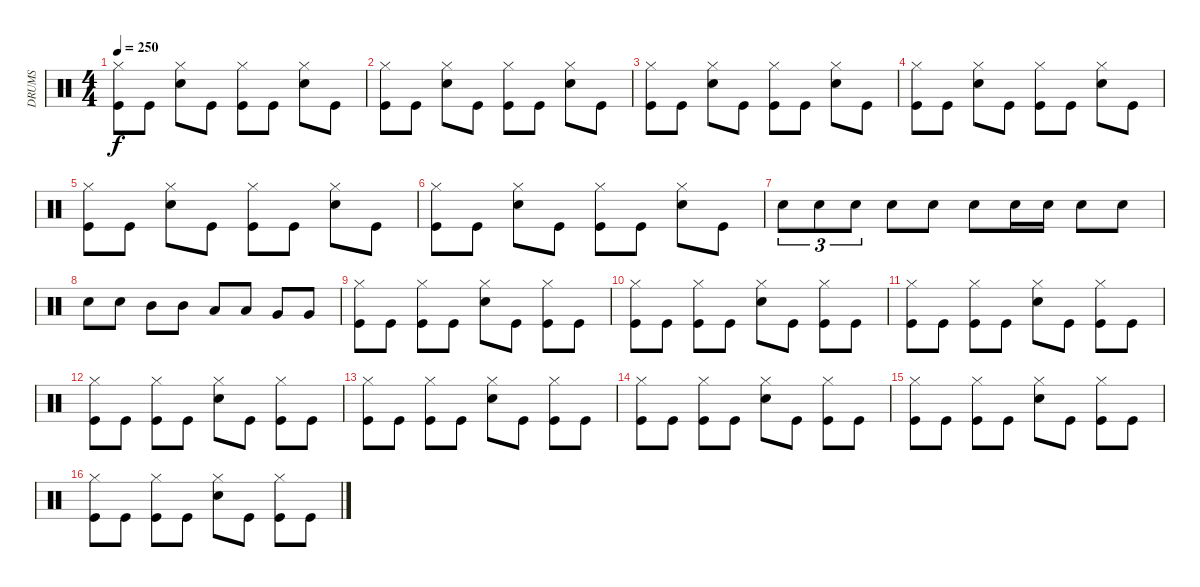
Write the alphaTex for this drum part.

\track ("DRUMS" "DRUMS") {instrument percussion}
\staff {score}
\articulation defaults
\ts (4 4)
\tempo 250
\clef neutral
\ks aminor
("Hi-Hat (closed)" "Kick (hit)").8{dy f} "Kick (hit)".8 ("Hi-Hat (closed)" "Snare (hit) 2").8 "Kick (hit)".8 ("Hi-Hat (closed)" "Kick (hit)").8 "Kick (hit)".8 ("Hi-Hat (closed)" "Snare (hit) 2").8 "Kick (hit)".8 |
("Hi-Hat (closed)" "Kick (hit)").8 "Kick (hit)".8 ("Hi-Hat (closed)" "Snare (hit) 2").8 "Kick (hit)".8 ("Hi-Hat (closed)" "Kick (hit)").8 "Kick (hit)".8 ("Hi-Hat (closed)" "Snare (hit) 2").8 "Kick (hit)".8 |
("Hi-Hat (closed)" "Kick (hit)").8 "Kick (hit)".8 ("Hi-Hat (closed)" "Snare (hit) 2").8 "Kick (hit)".8 ("Hi-Hat (closed)" "Kick (hit)").8 "Kick (hit)".8 ("Hi-Hat (closed)" "Snare (hit) 2").8 "Kick (hit)".8 |
("Hi-Hat (closed)" "Kick (hit)").8 "Kick (hit)".8 ("Hi-Hat (closed)" "Snare (hit) 2").8 "Kick (hit)".8 ("Hi-Hat (closed)" "Kick (hit)").8 "Kick (hit)".8 ("Hi-Hat (closed)" "Snare (hit) 2").8 "Kick (hit)".8 |
("Hi-Hat (closed)" "Kick (hit)").8 "Kick (hit)".8 ("Hi-Hat (closed)" "Snare (hit) 2").8 "Kick (hit)".8 ("Hi-Hat (closed)" "Kick (hit)").8 "Kick (hit)".8 ("Hi-Hat (closed)" "Snare (hit) 2").8 "Kick (hit)".8 |
("Hi-Hat (closed)" "Kick (hit)").8 "Kick (hit)".8 ("Hi-Hat (closed)" "Snare (hit) 2").8 "Kick (hit)".8 ("Hi-Hat (closed)" "Kick (hit)").8 "Kick (hit)".8 ("Hi-Hat (closed)" "Snare (hit) 2").8 "Kick (hit)".8 |
"Snare (hit) 2".8{tu (3 2)} "Snare (hit) 2".8{tu (3 2)} "Snare (hit) 2".8{tu (3 2)} "Snare (hit) 2".8 "Snare (hit) 2".8 "Snare (hit) 2".8 "Snare (hit) 2".16 "Snare (hit) 2".16 "Snare (hit) 2".8 "Snare (hit) 2".8 |
"Snare (hit) 2".8 "Snare (hit) 2".8 "Mid Tom (hit)".8 "Mid Tom (hit)".8 "Low Tom (hit)".8 "Low Tom (hit)".8 "Very Low Tom (hit)".8 "Very Low Tom (hit)".8 |
("Hi-Hat (closed)" "Kick (hit)").8 "Kick (hit)".8 ("Hi-Hat (closed)" "Kick (hit)").8 "Kick (hit)".8 ("Hi-Hat (closed)" "Snare (hit) 2").8 "Kick (hit)".8 ("Hi-Hat (closed)" "Kick (hit)").8 "Kick (hit)".8 |
("Hi-Hat (closed)" "Kick (hit)").8 "Kick (hit)".8 ("Hi-Hat (closed)" "Kick (hit)").8 "Kick (hit)".8 ("Hi-Hat (closed)" "Snare (hit) 2").8 "Kick (hit)".8 ("Hi-Hat (closed)" "Kick (hit)").8 "Kick (hit)".8 |
("Hi-Hat (closed)" "Kick (hit)").8 "Kick (hit)".8 ("Hi-Hat (closed)" "Kick (hit)").8 "Kick (hit)".8 ("Hi-Hat (closed)" "Snare (hit) 2").8 "Kick (hit)".8 ("Hi-Hat (closed)" "Kick (hit)").8 "Kick (hit)".8 |
("Hi-Hat (closed)" "Kick (hit)").8 "Kick (hit)".8 ("Hi-Hat (closed)" "Kick (hit)").8 "Kick (hit)".8 ("Hi-Hat (closed)" "Snare (hit) 2").8 "Kick (hit)".8 ("Hi-Hat (closed)" "Kick (hit)").8 "Kick (hit)".8 |
("Hi-Hat (closed)" "Kick (hit)").8 "Kick (hit)".8 ("Hi-Hat (closed)" "Kick (hit)").8 "Kick (hit)".8 ("Hi-Hat (closed)" "Snare (hit) 2").8 "Kick (hit)".8 ("Hi-Hat (closed)" "Kick (hit)").8 "Kick (hit)".8 |
("Hi-Hat (closed)" "Kick (hit)").8 "Kick (hit)".8 ("Hi-Hat (closed)" "Kick (hit)").8 "Kick (hit)".8 ("Hi-Hat (closed)" "Snare (hit) 2").8 "Kick (hit)".8 ("Hi-Hat (closed)" "Kick (hit)").8 "Kick (hit)".8 |
("Hi-Hat (closed)" "Kick (hit)").8 "Kick (hit)".8 ("Hi-Hat (closed)" "Kick (hit)").8 "Kick (hit)".8 ("Hi-Hat (closed)" "Snare (hit) 2").8 "Kick (hit)".8 ("Hi-Hat (closed)" "Kick (hit)").8 "Kick (hit)".8 |
("Hi-Hat (closed)" "Kick (hit)").8 "Kick (hit)".8 ("Hi-Hat (closed)" "Kick (hit)").8 "Kick (hit)".8 ("Hi-Hat (closed)" "Snare (hit) 2").8 "Kick (hit)".8 ("Hi-Hat (closed)" "Kick (hit)").8 "Kick (hit)".8
